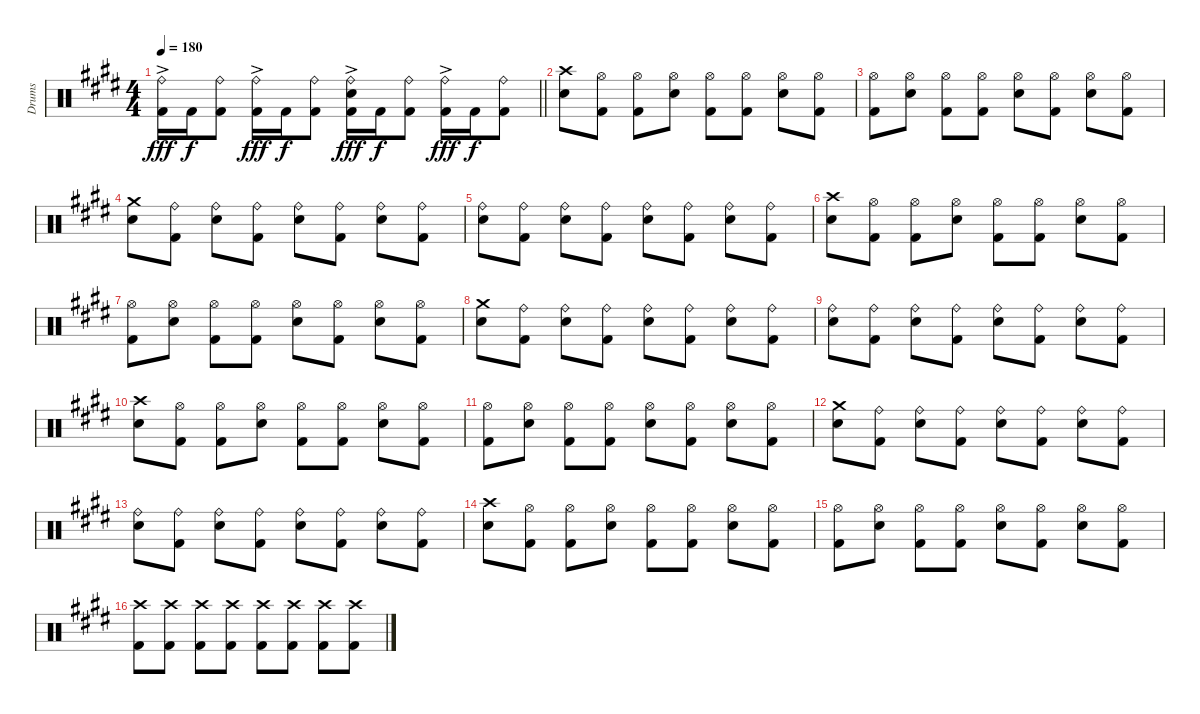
\track ("Drums" "Drums") {instrument percussion}
\staff {score}
\articulation defaults
\ts (4 4)
\tempo 180
\clef neutral
\barLineRight lightlight
\ks c#minor
("Ride (bell)"{ac} "Kick (hit) 2").16{dy fff} "Kick (hit) 2".16{dy f} ("Ride (bell)" "Kick (hit) 2").8 ("Ride (bell)"{ac} "Kick (hit) 2").16{dy fff} "Kick (hit) 2".16{dy f} ("Ride (bell)" "Kick (hit) 2").8 ("Ride (bell)"{ac} "Snare (hit) 2" "Kick (hit) 2").16{dy fff} "Kick (hit) 2".16{dy f} ("Ride (bell)" "Kick (hit) 2").8 ("Ride (bell)"{ac} "Kick (hit) 2").16{dy fff} "Kick (hit) 2".16{dy f} ("Ride (bell)" "Kick (hit) 2").8 |
("Crash high (hit)" "Snare (hit) 2").8 ("Hi-Hat (open)" "Kick (hit) 2").8 ("Hi-Hat (open)" "Kick (hit) 2").8 ("Hi-Hat (open)" "Snare (hit) 2").8 ("Hi-Hat (open)" "Kick (hit) 2").8 ("Hi-Hat (open)" "Kick (hit) 2").8 ("Hi-Hat (open)" "Snare (hit) 2").8 ("Hi-Hat (open)" "Kick (hit) 2").8 |
("Hi-Hat (open)" "Kick (hit) 2").8 ("Hi-Hat (open)" "Snare (hit) 2").8 ("Hi-Hat (open)" "Kick (hit) 2").8 ("Hi-Hat (open)" "Kick (hit) 2").8 ("Hi-Hat (open)" "Snare (hit) 2").8 ("Hi-Hat (open)" "Kick (hit) 2").8 ("Hi-Hat (open)" "Snare (hit) 2").8 ("Hi-Hat (open)" "Kick (hit) 2").8 |
("Crash medium (hit)" "Snare (hit) 2").8 ("Ride (bell)" "Kick (hit) 2").8 ("Ride (bell)" "Snare (hit) 2").8 ("Ride (bell)" "Kick (hit) 2").8 ("Ride (bell)" "Snare (hit) 2").8 ("Ride (bell)" "Kick (hit) 2").8 ("Ride (bell)" "Snare (hit) 2").8 ("Ride (bell)" "Kick (hit) 2").8 |
("Ride (bell)" "Snare (hit) 2").8 ("Ride (bell)" "Kick (hit) 2").8 ("Ride (bell)" "Snare (hit) 2").8 ("Ride (bell)" "Kick (hit) 2").8 ("Ride (bell)" "Snare (hit) 2").8 ("Ride (bell)" "Kick (hit) 2").8 ("Ride (bell)" "Snare (hit) 2").8 ("Ride (bell)" "Kick (hit) 2").8 |
("Crash high (hit)" "Snare (hit) 2").8 ("Hi-Hat (open)" "Kick (hit) 2").8 ("Hi-Hat (open)" "Kick (hit) 2").8 ("Hi-Hat (open)" "Snare (hit) 2").8 ("Hi-Hat (open)" "Kick (hit) 2").8 ("Hi-Hat (open)" "Kick (hit) 2").8 ("Hi-Hat (open)" "Snare (hit) 2").8 ("Hi-Hat (open)" "Kick (hit) 2").8 |
("Hi-Hat (open)" "Kick (hit) 2").8 ("Hi-Hat (open)" "Snare (hit) 2").8 ("Hi-Hat (open)" "Kick (hit) 2").8 ("Hi-Hat (open)" "Kick (hit) 2").8 ("Hi-Hat (open)" "Snare (hit) 2").8 ("Hi-Hat (open)" "Kick (hit) 2").8 ("Hi-Hat (open)" "Snare (hit) 2").8 ("Hi-Hat (open)" "Kick (hit) 2").8 |
("Crash medium (hit)" "Snare (hit) 2").8 ("Ride (bell)" "Kick (hit) 2").8 ("Ride (bell)" "Snare (hit) 2").8 ("Ride (bell)" "Kick (hit) 2").8 ("Ride (bell)" "Snare (hit) 2").8 ("Ride (bell)" "Kick (hit) 2").8 ("Ride (bell)" "Snare (hit) 2").8 ("Ride (bell)" "Kick (hit) 2").8 |
("Ride (bell)" "Snare (hit) 2").8 ("Ride (bell)" "Kick (hit) 2").8 ("Ride (bell)" "Snare (hit) 2").8 ("Ride (bell)" "Kick (hit) 2").8 ("Ride (bell)" "Snare (hit) 2").8 ("Ride (bell)" "Kick (hit) 2").8 ("Ride (bell)" "Snare (hit) 2").8 ("Ride (bell)" "Kick (hit) 2").8 |
("Crash high (hit)" "Snare (hit) 2").8 ("Hi-Hat (open)" "Kick (hit) 2").8 ("Hi-Hat (open)" "Kick (hit) 2").8 ("Hi-Hat (open)" "Snare (hit) 2").8 ("Hi-Hat (open)" "Kick (hit) 2").8 ("Hi-Hat (open)" "Kick (hit) 2").8 ("Hi-Hat (open)" "Snare (hit) 2").8 ("Hi-Hat (open)" "Kick (hit) 2").8 |
("Hi-Hat (open)" "Kick (hit) 2").8 ("Hi-Hat (open)" "Snare (hit) 2").8 ("Hi-Hat (open)" "Kick (hit) 2").8 ("Hi-Hat (open)" "Kick (hit) 2").8 ("Hi-Hat (open)" "Snare (hit) 2").8 ("Hi-Hat (open)" "Kick (hit) 2").8 ("Hi-Hat (open)" "Snare (hit) 2").8 ("Hi-Hat (open)" "Kick (hit) 2").8 |
("Crash medium (hit)" "Snare (hit) 2").8 ("Ride (bell)" "Kick (hit) 2").8 ("Ride (bell)" "Snare (hit) 2").8 ("Ride (bell)" "Kick (hit) 2").8 ("Ride (bell)" "Snare (hit) 2").8 ("Ride (bell)" "Kick (hit) 2").8 ("Ride (bell)" "Snare (hit) 2").8 ("Ride (bell)" "Kick (hit) 2").8 |
("Ride (bell)" "Snare (hit) 2").8 ("Ride (bell)" "Kick (hit) 2").8 ("Ride (bell)" "Snare (hit) 2").8 ("Ride (bell)" "Kick (hit) 2").8 ("Ride (bell)" "Snare (hit) 2").8 ("Ride (bell)" "Kick (hit) 2").8 ("Ride (bell)" "Snare (hit) 2").8 ("Ride (bell)" "Kick (hit) 2").8 |
("Crash high (hit)" "Snare (hit) 2").8 ("Hi-Hat (open)" "Kick (hit) 2").8 ("Hi-Hat (open)" "Kick (hit) 2").8 ("Hi-Hat (open)" "Snare (hit) 2").8 ("Hi-Hat (open)" "Kick (hit) 2").8 ("Hi-Hat (open)" "Kick (hit) 2").8 ("Hi-Hat (open)" "Snare (hit) 2").8 ("Hi-Hat (open)" "Kick (hit) 2").8 |
("Hi-Hat (open)" "Kick (hit) 2").8 ("Hi-Hat (open)" "Snare (hit) 2").8 ("Hi-Hat (open)" "Kick (hit) 2").8 ("Hi-Hat (open)" "Kick (hit) 2").8 ("Hi-Hat (open)" "Snare (hit) 2").8 ("Hi-Hat (open)" "Kick (hit) 2").8 ("Hi-Hat (open)" "Snare (hit) 2").8 ("Hi-Hat (open)" "Kick (hit) 2").8 |
("Crash high (hit)" "Kick (hit) 2").8 ("Crash high (hit)" "Kick (hit) 2").8 ("Crash high (hit)" "Kick (hit) 2").8 ("Crash high (hit)" "Kick (hit) 2").8 ("Crash high (hit)" "Kick (hit) 2").8 ("Crash high (hit)" "Kick (hit) 2").8 ("Crash high (hit)" "Kick (hit) 2").8 ("Crash high (hit)" "Kick (hit) 2").8
